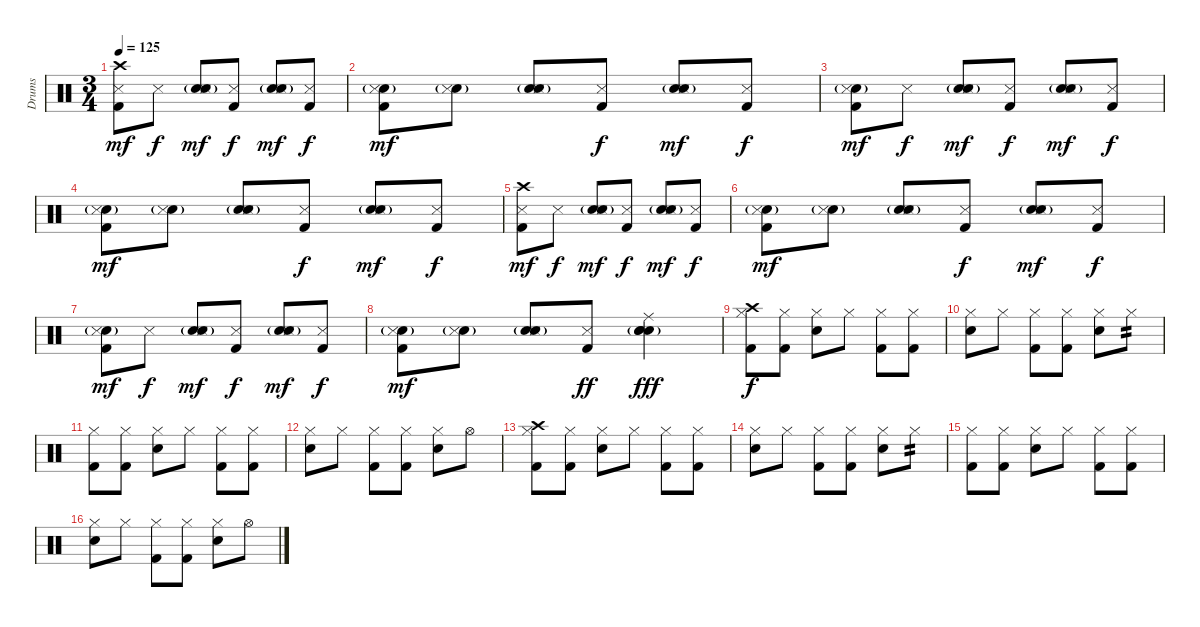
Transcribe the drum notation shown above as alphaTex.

\track ("Drums" "Drums") {instrument percussion}
\staff {score}
\articulation defaults
\ts (3 4)
\tempo 125
\clef neutral
\ks c
("Crash high (hit)" "Snare (side stick) 3" "Kick (hit) 2").8{dy mf} "Snare (side stick) 3".8{dy f} ("Hand Clap (hit)"{g} "Snare (side stick) 3" "Electric Snare (hit)").8{dy mf} ("Snare (side stick) 3" "Kick (hit) 2").8{dy f} ("Hand Clap (hit)"{g} "Snare (side stick) 3" "Electric Snare (hit)").8{dy mf} ("Snare (side stick) 3" "Kick (hit) 2").8{dy f} |
("Hand Clap (hit)"{g} "Snare (side stick) 3" "Kick (hit) 2").8{dy mf} ("Hand Clap (hit)"{g} "Snare (side stick) 3").8 ("Hand Clap (hit)"{g} "Snare (side stick) 3" "Electric Snare (hit)").8 ("Snare (side stick) 3" "Kick (hit) 2").8{dy f} ("Hand Clap (hit)"{g} "Snare (side stick) 3" "Electric Snare (hit)").8{dy mf} ("Snare (side stick) 3" "Kick (hit) 2").8{dy f} |
("Hand Clap (hit)"{g} "Snare (side stick) 3" "Kick (hit) 2").8{dy mf} "Snare (side stick) 3".8{dy f} ("Hand Clap (hit)"{g} "Snare (side stick) 3" "Electric Snare (hit)").8{dy mf} ("Snare (side stick) 3" "Kick (hit) 2").8{dy f} ("Hand Clap (hit)"{g} "Snare (side stick) 3" "Electric Snare (hit)").8{dy mf} ("Snare (side stick) 3" "Kick (hit) 2").8{dy f} |
("Hand Clap (hit)"{g} "Snare (side stick) 3" "Kick (hit) 2").8{dy mf} ("Hand Clap (hit)"{g} "Snare (side stick) 3").8 ("Hand Clap (hit)"{g} "Snare (side stick) 3" "Electric Snare (hit)").8 ("Snare (side stick) 3" "Kick (hit) 2").8{dy f} ("Hand Clap (hit)"{g} "Snare (side stick) 3" "Electric Snare (hit)").8{dy mf} ("Snare (side stick) 3" "Kick (hit) 2").8{dy f} |
("Crash high (hit)" "Snare (side stick) 3" "Kick (hit) 2").8{dy mf} "Snare (side stick) 3".8{dy f} ("Hand Clap (hit)"{g} "Snare (side stick) 3" "Electric Snare (hit)").8{dy mf} ("Snare (side stick) 3" "Kick (hit) 2").8{dy f} ("Hand Clap (hit)"{g} "Snare (side stick) 3" "Electric Snare (hit)").8{dy mf} ("Snare (side stick) 3" "Kick (hit) 2").8{dy f} |
("Hand Clap (hit)"{g} "Snare (side stick) 3" "Kick (hit) 2").8{dy mf} ("Hand Clap (hit)"{g} "Snare (side stick) 3").8 ("Hand Clap (hit)"{g} "Snare (side stick) 3" "Electric Snare (hit)").8 ("Snare (side stick) 3" "Kick (hit) 2").8{dy f} ("Hand Clap (hit)"{g} "Snare (side stick) 3" "Electric Snare (hit)").8{dy mf} ("Snare (side stick) 3" "Kick (hit) 2").8{dy f} |
("Hand Clap (hit)"{g} "Snare (side stick) 3" "Kick (hit) 2").8{dy mf} "Snare (side stick) 3".8{dy f} ("Hand Clap (hit)"{g} "Snare (side stick) 3" "Electric Snare (hit)").8{dy mf} ("Snare (side stick) 3" "Kick (hit) 2").8{dy f} ("Hand Clap (hit)"{g} "Snare (side stick) 3" "Electric Snare (hit)").8{dy mf} ("Snare (side stick) 3" "Kick (hit) 2").8{dy f} |
("Hand Clap (hit)"{g} "Snare (side stick) 3" "Kick (hit) 2").8{dy mf} ("Hand Clap (hit)"{g} "Snare (side stick) 3").8 ("Hand Clap (hit)"{g} "Snare (side stick) 3" "Electric Snare (hit)").8 ("Snare (side stick) 3" "Kick (hit) 2").8{dy ff} ("Hand Clap (hit)"{g} "Ride (middle)" "Electric Snare (hit)" "Electric Snare (hit)").4{dy fff} |
("Crash high (hit)" "Hi-Hat (closed)" "Kick (hit) 2").8{dy f} ("Hi-Hat (closed)" "Kick (hit) 2").8 ("Hi-Hat (closed)" "Electric Snare (hit)").8 "Hi-Hat (closed)".8 ("Hi-Hat (closed)" "Kick (hit) 2").8 ("Hi-Hat (closed)" "Kick (hit) 2").8 |
("Hi-Hat (closed)" "Electric Snare (hit)").8 "Hi-Hat (closed)".8 ("Hi-Hat (closed)" "Kick (hit) 2").8 ("Hi-Hat (closed)" "Kick (hit) 2").8 ("Hi-Hat (closed)" "Electric Snare (hit)").8 "Hi-Hat (closed)".8{tp 2} |
("Hi-Hat (closed)" "Kick (hit) 2").8 ("Hi-Hat (closed)" "Kick (hit) 2").8 ("Hi-Hat (closed)" "Electric Snare (hit)").8 "Hi-Hat (closed)".8 ("Hi-Hat (closed)" "Kick (hit) 2").8 ("Hi-Hat (closed)" "Kick (hit) 2").8 |
("Hi-Hat (closed)" "Electric Snare (hit)").8 "Hi-Hat (closed)".8 ("Hi-Hat (closed)" "Kick (hit) 2").8 ("Hi-Hat (closed)" "Kick (hit) 2").8 ("Hi-Hat (closed)" "Electric Snare (hit)").8 "Hi-Hat (open)".8 |
("Crash high (hit)" "Hi-Hat (closed)" "Kick (hit) 2").8 ("Hi-Hat (closed)" "Kick (hit) 2").8 ("Hi-Hat (closed)" "Electric Snare (hit)").8 "Hi-Hat (closed)".8 ("Hi-Hat (closed)" "Kick (hit) 2").8 ("Hi-Hat (closed)" "Kick (hit) 2").8 |
("Hi-Hat (closed)" "Electric Snare (hit)").8 "Hi-Hat (closed)".8 ("Hi-Hat (closed)" "Kick (hit) 2").8 ("Hi-Hat (closed)" "Kick (hit) 2").8 ("Hi-Hat (closed)" "Electric Snare (hit)").8 "Hi-Hat (closed)".8{tp 2} |
("Hi-Hat (closed)" "Kick (hit) 2").8 ("Hi-Hat (closed)" "Kick (hit) 2").8 ("Hi-Hat (closed)" "Electric Snare (hit)").8 "Hi-Hat (closed)".8 ("Hi-Hat (closed)" "Kick (hit) 2").8 ("Hi-Hat (closed)" "Kick (hit) 2").8 |
("Hi-Hat (closed)" "Electric Snare (hit)").8 "Hi-Hat (closed)".8 ("Hi-Hat (closed)" "Kick (hit) 2").8 ("Hi-Hat (closed)" "Kick (hit) 2").8 ("Hi-Hat (closed)" "Electric Snare (hit)").8 "Hi-Hat (open)".8
